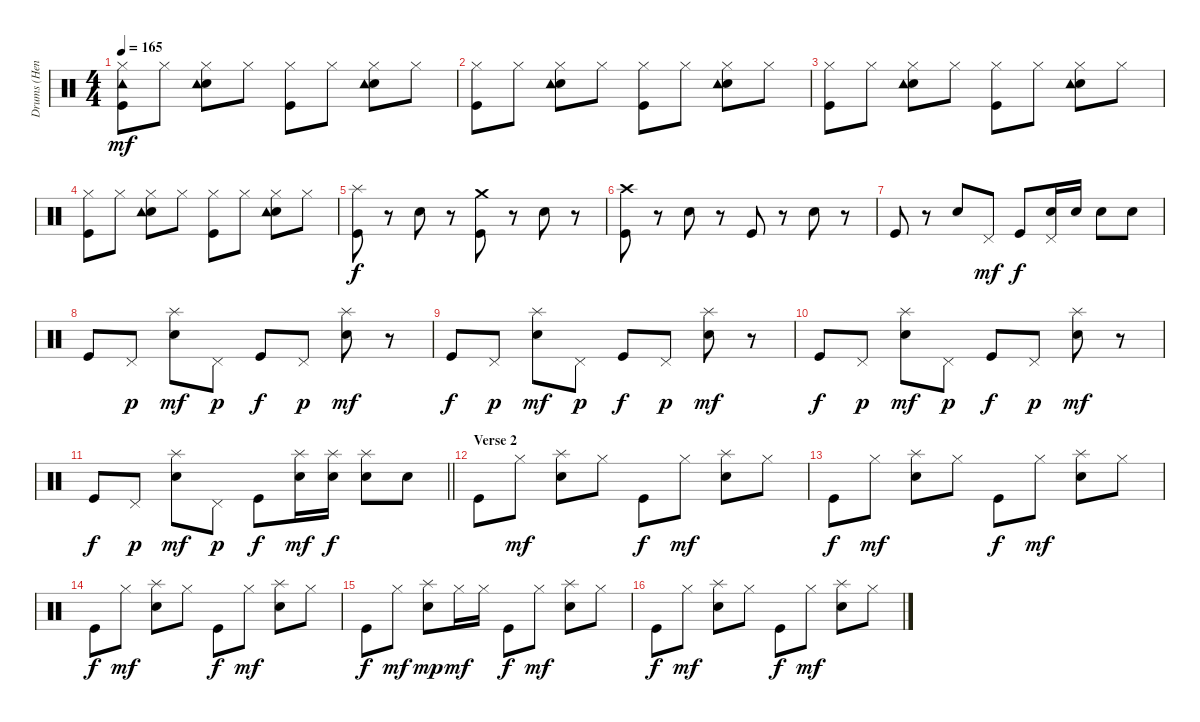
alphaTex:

\track ("Drums (Henry)" "Drums (Hen") {instrument percussion}
\staff {score}
\articulation defaults
\ts (4 4)
\tempo 165
\clef neutral
\ks c
("Kick (hit)" "Hi-Hat (closed)" "Tambourine (hit)").8{dy mf} "Hi-Hat (closed)".8 ("Snare (hit) 2" "Tambourine (hit)" "Hi-Hat (closed)").8 "Hi-Hat (closed)".8 ("Kick (hit)" "Hi-Hat (closed)").8 "Hi-Hat (closed)".8 ("Snare (hit) 2" "Tambourine (hit)" "Hi-Hat (closed)").8 "Hi-Hat (closed)".8 |
("Kick (hit)" "Hi-Hat (closed)").8 "Hi-Hat (closed)".8 ("Snare (hit) 2" "Tambourine (hit)" "Hi-Hat (closed)").8 "Hi-Hat (closed)".8 ("Kick (hit)" "Hi-Hat (closed)").8 "Hi-Hat (closed)".8 ("Snare (hit) 2" "Tambourine (hit)" "Hi-Hat (closed)").8 "Hi-Hat (closed)".8 |
("Kick (hit)" "Hi-Hat (closed)").8 "Hi-Hat (closed)".8 ("Snare (hit) 2" "Tambourine (hit)" "Hi-Hat (closed)").8 "Hi-Hat (closed)".8 ("Kick (hit)" "Hi-Hat (closed)").8 "Hi-Hat (closed)".8 ("Snare (hit) 2" "Tambourine (hit)" "Hi-Hat (closed)").8 "Hi-Hat (closed)".8 |
("Kick (hit)" "Hi-Hat (closed)").8 "Hi-Hat (closed)".8 ("Snare (hit) 2" "Tambourine (hit)" "Hi-Hat (closed)").8 "Hi-Hat (closed)".8 ("Kick (hit)" "Hi-Hat (closed)").8 "Hi-Hat (closed)".8 ("Snare (hit) 2" "Tambourine (hit)" "Hi-Hat (closed)").8 "Hi-Hat (closed)".8 |
("Kick (hit)" "Splash (hit)").8{dy f} r.8 "Snare (hit) 2".8 r.8 ("Kick (hit)" "Crash medium (hit)").8 r.8 "Snare (hit) 2".8 r.8 |
("Kick (hit)" "Crash high (hit)").8 r.8 "Snare (hit) 2".8 r.8 "Kick (hit)".8 r.8 "Snare (hit) 2".8 r.8 |
"Kick (hit)".8 r.8 "Snare (hit) 2".8 "Pedal Hi-Hat (hit)".8{dy mf} "Kick (hit)".8{dy f} ("Snare (hit) 2" "Pedal Hi-Hat (hit)").16 "Snare (hit) 2".16 "Snare (hit) 2".8 "Snare (hit) 2".8 |
"Kick (hit)".8 "Pedal Hi-Hat (hit)".8{dy p} ("Snare (hit) 2" "Splash (hit)").8{dy mf} "Pedal Hi-Hat (hit)".8{dy p} "Kick (hit)".8{dy f} "Pedal Hi-Hat (hit)".8{dy p} ("Snare (hit) 2" "Splash (hit)").8{dy mf} r.8 |
"Kick (hit)".8{dy f} "Pedal Hi-Hat (hit)".8{dy p} ("Snare (hit) 2" "Splash (hit)").8{dy mf} "Pedal Hi-Hat (hit)".8{dy p} "Kick (hit)".8{dy f} "Pedal Hi-Hat (hit)".8{dy p} ("Snare (hit) 2" "Splash (hit)").8{dy mf} r.8 |
"Kick (hit)".8{dy f} "Pedal Hi-Hat (hit)".8{dy p} ("Snare (hit) 2" "Splash (hit)").8{dy mf} "Pedal Hi-Hat (hit)".8{dy p} "Kick (hit)".8{dy f} "Pedal Hi-Hat (hit)".8{dy p} ("Snare (hit) 2" "Splash (hit)").8{dy mf} r.8 |
\barLineRight lightlight "Kick (hit)".8{dy f} "Pedal Hi-Hat (hit)".8{dy p}
("Snare (hit) 2" "Splash (hit)").8{dy mf} "Pedal Hi-Hat (hit)".8{dy p} "Kick (hit)".8{dy f} ("Snare (hit) 2" "Splash (hit)").16{dy mf} ("Snare (hit) 2" "Splash (hit)").16{dy f} ("Snare (hit) 2" "Splash (hit)").8 "Snare (hit) 2".8 |
\section ("" "Verse 2")
"Kick (hit)".8 "Hi-Hat (closed)".8{dy mf} ("Snare (hit) 2" "Splash (hit)").8 "Hi-Hat (closed)".8 "Kick (hit)".8{dy f} "Hi-Hat (closed)".8{dy mf} ("Snare (hit) 2" "Splash (hit)").8 "Hi-Hat (closed)".8 |
"Kick (hit)".8{dy f} "Hi-Hat (closed)".8{dy mf} ("Snare (hit) 2" "Splash (hit)").8 "Hi-Hat (closed)".8 "Kick (hit)".8{dy f} "Hi-Hat (closed)".8{dy mf} ("Snare (hit) 2" "Splash (hit)").8 "Hi-Hat (closed)".8 |
"Kick (hit)".8{dy f} "Hi-Hat (closed)".8{dy mf} ("Snare (hit) 2" "Splash (hit)").8 "Hi-Hat (closed)".8 "Kick (hit)".8{dy f} "Hi-Hat (closed)".8{dy mf} ("Snare (hit) 2" "Splash (hit)").8 "Hi-Hat (closed)".8 |
"Kick (hit)".8{dy f} "Hi-Hat (closed)".8{dy mf} ("Snare (hit) 2" "Splash (hit)").8{dy mp} "Hi-Hat (closed)".16{dy mf} "Hi-Hat (closed)".16 "Kick (hit)".8{dy f} "Hi-Hat (closed)".8{dy mf} ("Snare (hit) 2" "Splash (hit)").8 "Hi-Hat (closed)".8 |
"Kick (hit)".8{dy f} "Hi-Hat (closed)".8{dy mf} ("Snare (hit) 2" "Splash (hit)").8 "Hi-Hat (closed)".8 "Kick (hit)".8{dy f} "Hi-Hat (closed)".8{dy mf} ("Snare (hit) 2" "Splash (hit)").8 "Hi-Hat (closed)".8
